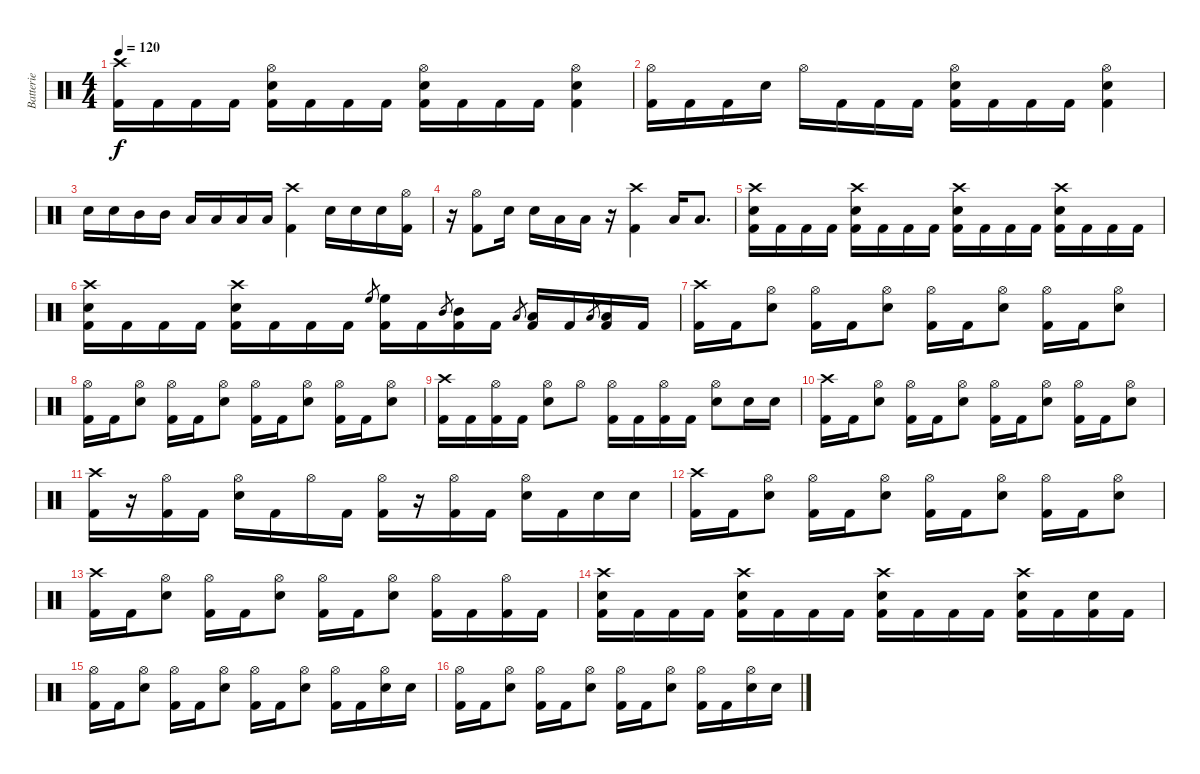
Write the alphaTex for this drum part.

\track ("Batterie" "Batterie") {instrument percussion}
\staff {score}
\articulation defaults
\ts (4 4)
\tempo 120
\clef neutral
\ks c
("Crash high (hit)" "Kick (hit) 2").16{dy f} "Kick (hit) 2".16 "Kick (hit) 2".16 "Kick (hit) 2".16 ("Electric Snare (hit)" "Hi-Hat (open)" "Kick (hit) 2").16 "Kick (hit) 2".16 "Kick (hit) 2".16 "Kick (hit) 2".16 ("Electric Snare (hit)" "Hi-Hat (open)" "Kick (hit) 2").16 "Kick (hit) 2".16 "Kick (hit) 2".16 "Kick (hit) 2".16 ("Electric Snare (hit)" "Hi-Hat (open)" "Kick (hit) 2").4 |
("Kick (hit) 2" "Hi-Hat (open)").16 "Kick (hit) 2".16 "Kick (hit) 2".16 "Electric Snare (hit)".16 "Hi-Hat (open)".16 "Kick (hit) 2".16 "Kick (hit) 2".16 "Kick (hit) 2".16 ("Electric Snare (hit)" "Kick (hit) 2" "Hi-Hat (open)").16 "Kick (hit) 2".16 "Kick (hit) 2".16 "Kick (hit) 2".16 ("Electric Snare (hit)" "Kick (hit) 2" "Hi-Hat (open)").4 |
"Electric Snare (hit)".16 "Electric Snare (hit)".16 "Mid Tom (hit)".16 "Mid Tom (hit)".16 "Low Tom (hit)".16 "Low Tom (hit)".16 "Low Floor Tom (hit)".16 "Low Floor Tom (hit)".16 ("Crash high (hit)" "Kick (hit) 2").4 "Electric Snare (hit)".16 "Electric Snare (hit)".16 "Electric Snare (hit)".16 ("Hi-Hat (open)" "Kick (hit) 2").16 |
r.16 ("Hi-Hat (open)" "Kick (hit) 2").8 "Electric Snare (hit)".16 "Electric Snare (hit)".16 "Low Tom (hit)".16 "Low Tom (hit)".16 r.16 ("Crash high (hit)" "Kick (hit) 2").4 "Low Tom (hit)".16 "Low Floor Tom (hit)".8{d} |
("Crash high (hit)" "Kick (hit) 2" "Electric Snare (hit)").16 "Kick (hit) 2".16 "Kick (hit) 2".16 "Kick (hit) 2".16 ("Crash high (hit)" "Kick (hit) 2" "Electric Snare (hit)").16 "Kick (hit) 2".16 "Kick (hit) 2".16 "Kick (hit) 2".16 ("Crash high (hit)" "Kick (hit) 2" "Electric Snare (hit)").16 "Kick (hit) 2".16 "Kick (hit) 2".16 "Kick (hit) 2".16 ("Crash high (hit)" "Kick (hit) 2" "Electric Snare (hit)").16 "Kick (hit) 2".16 "Kick (hit) 2".16 "Kick (hit) 2".16 |
("Crash high (hit)" "Kick (hit) 2" "Electric Snare (hit)").16 "Kick (hit) 2".16 "Kick (hit) 2".16 "Kick (hit) 2".16 ("Crash high (hit)" "Kick (hit) 2" "Electric Snare (hit)").16 "Kick (hit) 2".16 "Kick (hit) 2".16 "Kick (hit) 2".16 "High Floor Tom (hit)".8{gr} ("Kick (hit) 2" "High Floor Tom (hit)").16 "Kick (hit) 2".16 "Mid Tom (hit)".8{gr} ("Kick (hit) 2" "Mid Tom (hit)").16 "Kick (hit) 2".16 "Low Tom (hit)".8{gr} ("Kick (hit) 2" "Low Tom (hit)").16 "Kick (hit) 2".16 "Low Floor Tom (hit)".8{gr} ("Kick (hit) 2" "Low Floor Tom (hit)").16 "Kick (hit) 2".16 |
("Crash high (hit)" "Kick (hit) 2").16 "Kick (hit) 2".16 ("Hi-Hat (open)" "Electric Snare (hit)").8 ("Hi-Hat (open)" "Kick (hit) 2").16 "Kick (hit) 2".16 ("Hi-Hat (open)" "Electric Snare (hit)").8 ("Hi-Hat (open)" "Kick (hit) 2").16 "Kick (hit) 2".16 ("Hi-Hat (open)" "Electric Snare (hit)").8 ("Hi-Hat (open)" "Kick (hit) 2").16 "Kick (hit) 2".16 ("Hi-Hat (open)" "Electric Snare (hit)").8 |
("Hi-Hat (open)" "Kick (hit) 2").16 "Kick (hit) 2".16 ("Hi-Hat (open)" "Electric Snare (hit)").8 ("Hi-Hat (open)" "Kick (hit) 2").16 "Kick (hit) 2".16 ("Hi-Hat (open)" "Electric Snare (hit)").8 ("Hi-Hat (open)" "Kick (hit) 2").16 "Kick (hit) 2".16 ("Hi-Hat (open)" "Electric Snare (hit)").8 ("Hi-Hat (open)" "Kick (hit) 2").16 "Kick (hit) 2".16 ("Hi-Hat (open)" "Electric Snare (hit)").8 |
("Kick (hit) 2" "Crash high (hit)").16 "Kick (hit) 2".16 ("Kick (hit) 2" "Hi-Hat (open)").16 "Kick (hit) 2".16 ("Electric Snare (hit)" "Hi-Hat (open)").8 "Hi-Hat (open)".8 ("Kick (hit) 2" "Hi-Hat (open)").16 "Kick (hit) 2".16 ("Kick (hit) 2" "Hi-Hat (open)").16 "Kick (hit) 2".16 ("Electric Snare (hit)" "Hi-Hat (open)").8 "Electric Snare (hit)".16 "Electric Snare (hit)".16 |
("Crash high (hit)" "Kick (hit) 2").16 "Kick (hit) 2".16 ("Hi-Hat (open)" "Electric Snare (hit)").8 ("Hi-Hat (open)" "Kick (hit) 2").16 "Kick (hit) 2".16 ("Hi-Hat (open)" "Electric Snare (hit)").8 ("Hi-Hat (open)" "Kick (hit) 2").16 "Kick (hit) 2".16 ("Hi-Hat (open)" "Electric Snare (hit)").8 ("Hi-Hat (open)" "Kick (hit) 2").16 "Kick (hit) 2".16 ("Hi-Hat (open)" "Electric Snare (hit)").8 |
("Kick (hit) 2" "Crash high (hit)").16 r.16 ("Kick (hit) 2" "Hi-Hat (open)").16 "Kick (hit) 2".16 ("Electric Snare (hit)" "Hi-Hat (open)").16 "Kick (hit) 2".16 "Hi-Hat (open)".16 "Kick (hit) 2".16 ("Kick (hit) 2" "Hi-Hat (open)").16 r.16 ("Kick (hit) 2" "Hi-Hat (open)").16 "Kick (hit) 2".16 ("Electric Snare (hit)" "Hi-Hat (open)").16 "Kick (hit) 2".16 "Electric Snare (hit)".16 "Electric Snare (hit)".16 |
("Crash high (hit)" "Kick (hit) 2").16 "Kick (hit) 2".16 ("Hi-Hat (open)" "Electric Snare (hit)").8 ("Hi-Hat (open)" "Kick (hit) 2").16 "Kick (hit) 2".16 ("Hi-Hat (open)" "Electric Snare (hit)").8 ("Hi-Hat (open)" "Kick (hit) 2").16 "Kick (hit) 2".16 ("Hi-Hat (open)" "Electric Snare (hit)").8 ("Hi-Hat (open)" "Kick (hit) 2").16 "Kick (hit) 2".16 ("Hi-Hat (open)" "Electric Snare (hit)").8 |
("Crash high (hit)" "Kick (hit) 2").16 "Kick (hit) 2".16 ("Hi-Hat (open)" "Electric Snare (hit)").8 ("Hi-Hat (open)" "Kick (hit) 2").16 "Kick (hit) 2".16 ("Hi-Hat (open)" "Electric Snare (hit)").8 ("Hi-Hat (open)" "Kick (hit) 2").16 "Kick (hit) 2".16 ("Hi-Hat (open)" "Electric Snare (hit)").8 ("Hi-Hat (open)" "Kick (hit) 2").16 "Kick (hit) 2".16 ("Hi-Hat (open)" "Kick (hit) 2").16 "Kick (hit) 2".16 |
("Crash high (hit)" "Kick (hit) 2" "Electric Snare (hit)").16 "Kick (hit) 2".16 "Kick (hit) 2".16 "Kick (hit) 2".16 ("Crash high (hit)" "Kick (hit) 2" "Electric Snare (hit)").16 "Kick (hit) 2".16 "Kick (hit) 2".16 "Kick (hit) 2".16 ("Crash high (hit)" "Kick (hit) 2" "Electric Snare (hit)").16 "Kick (hit) 2".16 "Kick (hit) 2".16 "Kick (hit) 2".16 ("Crash high (hit)" "Kick (hit) 2" "Electric Snare (hit)").16 "Kick (hit) 2".16 ("Kick (hit) 2" "Electric Snare (hit)").16 "Kick (hit) 2".16 |
("Hi-Hat (open)" "Kick (hit) 2").16 "Kick (hit) 2".16 ("Hi-Hat (open)" "Electric Snare (hit)").8 ("Hi-Hat (open)" "Kick (hit) 2").16 "Kick (hit) 2".16 ("Hi-Hat (open)" "Electric Snare (hit)").8 ("Hi-Hat (open)" "Kick (hit) 2").16 "Kick (hit) 2".16 ("Hi-Hat (open)" "Electric Snare (hit)").8 ("Hi-Hat (open)" "Kick (hit) 2").16 "Kick (hit) 2".16 ("Hi-Hat (open)" "Electric Snare (hit)").16 "Electric Snare (hit)".16 |
("Hi-Hat (open)" "Kick (hit) 2").16 "Kick (hit) 2".16 ("Hi-Hat (open)" "Electric Snare (hit)").8 ("Hi-Hat (open)" "Kick (hit) 2").16 "Kick (hit) 2".16 ("Hi-Hat (open)" "Electric Snare (hit)").8 ("Hi-Hat (open)" "Kick (hit) 2").16 "Kick (hit) 2".16 ("Hi-Hat (open)" "Electric Snare (hit)").8 ("Hi-Hat (open)" "Kick (hit) 2").16 "Kick (hit) 2".16 ("Hi-Hat (open)" "Electric Snare (hit)").16 "Electric Snare (hit)".16
